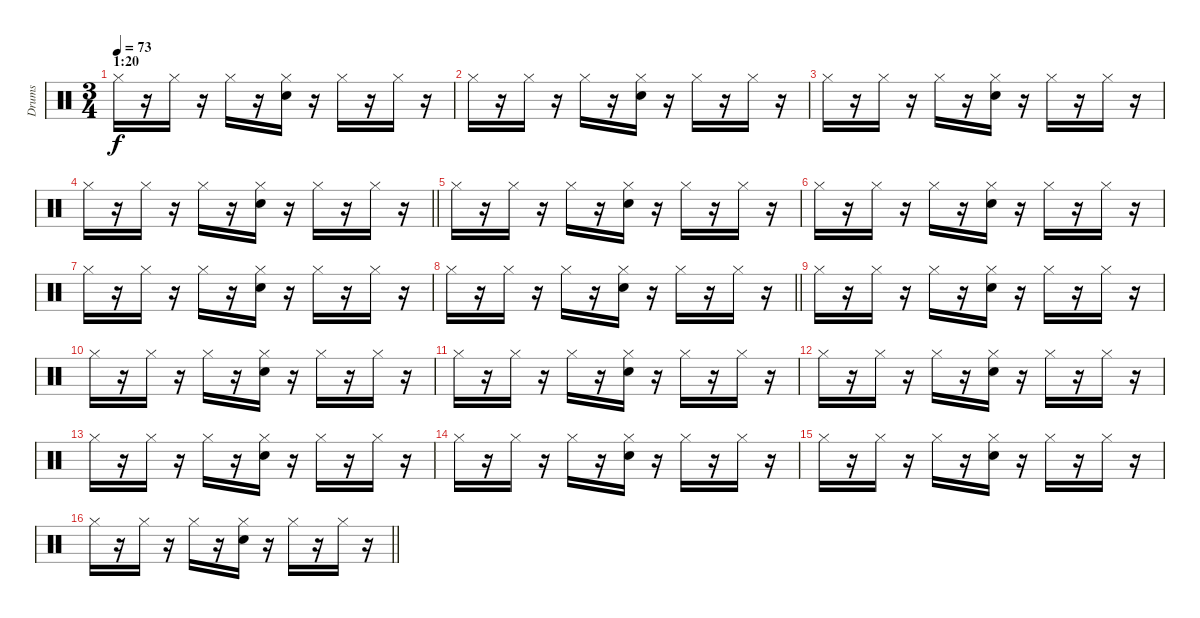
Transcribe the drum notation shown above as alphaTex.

\track ("Drums" "Drums") {instrument percussion}
\staff {score}
\articulation defaults
\ts (3 4)
\section ("" "1:20")
\tempo 73
\clef neutral
\ks c "Hi-Hat (closed)".16{dy f}
r.16 "Hi-Hat (closed)".16 r.16 "Hi-Hat (closed)".16 r.16 ("Hi-Hat (closed)" "Electric Snare (hit)").16 r.16 "Hi-Hat (closed)".16 r.16 "Hi-Hat (closed)".16 r.16 |
"Hi-Hat (closed)".16 r.16 "Hi-Hat (closed)".16 r.16 "Hi-Hat (closed)".16 r.16 ("Hi-Hat (closed)" "Electric Snare (hit)").16 r.16 "Hi-Hat (closed)".16 r.16 "Hi-Hat (closed)".16 r.16 |
"Hi-Hat (closed)".16 r.16 "Hi-Hat (closed)".16 r.16 "Hi-Hat (closed)".16 r.16 ("Hi-Hat (closed)" "Electric Snare (hit)").16 r.16 "Hi-Hat (closed)".16 r.16 "Hi-Hat (closed)".16 r.16 |
\barLineRight lightlight "Hi-Hat (closed)".16
r.16 "Hi-Hat (closed)".16 r.16 "Hi-Hat (closed)".16 r.16 ("Hi-Hat (closed)" "Electric Snare (hit)").16 r.16 "Hi-Hat (closed)".16 r.16 "Hi-Hat (closed)".16 r.16 |
"Hi-Hat (closed)".16 r.16 "Hi-Hat (closed)".16 r.16 "Hi-Hat (closed)".16 r.16 ("Hi-Hat (closed)" "Electric Snare (hit)").16 r.16 "Hi-Hat (closed)".16 r.16 "Hi-Hat (closed)".16 r.16 |
"Hi-Hat (closed)".16 r.16 "Hi-Hat (closed)".16 r.16 "Hi-Hat (closed)".16 r.16 ("Hi-Hat (closed)" "Electric Snare (hit)").16 r.16 "Hi-Hat (closed)".16 r.16 "Hi-Hat (closed)".16 r.16 |
"Hi-Hat (closed)".16 r.16 "Hi-Hat (closed)".16 r.16 "Hi-Hat (closed)".16 r.16 ("Hi-Hat (closed)" "Electric Snare (hit)").16 r.16 "Hi-Hat (closed)".16 r.16 "Hi-Hat (closed)".16 r.16 |
\barLineRight lightlight "Hi-Hat (closed)".16
r.16 "Hi-Hat (closed)".16 r.16 "Hi-Hat (closed)".16 r.16 ("Hi-Hat (closed)" "Electric Snare (hit)").16 r.16 "Hi-Hat (closed)".16 r.16 "Hi-Hat (closed)".16 r.16 |
"Hi-Hat (closed)".16 r.16 "Hi-Hat (closed)".16 r.16 "Hi-Hat (closed)".16 r.16 ("Hi-Hat (closed)" "Electric Snare (hit)").16 r.16 "Hi-Hat (closed)".16 r.16 "Hi-Hat (closed)".16 r.16 |
"Hi-Hat (closed)".16 r.16 "Hi-Hat (closed)".16 r.16 "Hi-Hat (closed)".16 r.16 ("Hi-Hat (closed)" "Electric Snare (hit)").16 r.16 "Hi-Hat (closed)".16 r.16 "Hi-Hat (closed)".16 r.16 |
"Hi-Hat (closed)".16 r.16 "Hi-Hat (closed)".16 r.16 "Hi-Hat (closed)".16 r.16 ("Hi-Hat (closed)" "Electric Snare (hit)").16 r.16 "Hi-Hat (closed)".16 r.16 "Hi-Hat (closed)".16 r.16 |
"Hi-Hat (closed)".16 r.16 "Hi-Hat (closed)".16 r.16 "Hi-Hat (closed)".16 r.16 ("Hi-Hat (closed)" "Electric Snare (hit)").16 r.16 "Hi-Hat (closed)".16 r.16 "Hi-Hat (closed)".16 r.16 |
"Hi-Hat (closed)".16 r.16 "Hi-Hat (closed)".16 r.16 "Hi-Hat (closed)".16 r.16 ("Hi-Hat (closed)" "Electric Snare (hit)").16 r.16 "Hi-Hat (closed)".16 r.16 "Hi-Hat (closed)".16 r.16 |
"Hi-Hat (closed)".16 r.16 "Hi-Hat (closed)".16 r.16 "Hi-Hat (closed)".16 r.16 ("Hi-Hat (closed)" "Electric Snare (hit)").16 r.16 "Hi-Hat (closed)".16 r.16 "Hi-Hat (closed)".16 r.16 |
"Hi-Hat (closed)".16 r.16 "Hi-Hat (closed)".16 r.16 "Hi-Hat (closed)".16 r.16 ("Hi-Hat (closed)" "Electric Snare (hit)").16 r.16 "Hi-Hat (closed)".16 r.16 "Hi-Hat (closed)".16 r.16 |
\barLineRight lightlight "Hi-Hat (closed)".16
r.16 "Hi-Hat (closed)".16 r.16 "Hi-Hat (closed)".16 r.16 ("Hi-Hat (closed)" "Electric Snare (hit)").16 r.16 "Hi-Hat (closed)".16 r.16 "Hi-Hat (closed)".16 r.16
